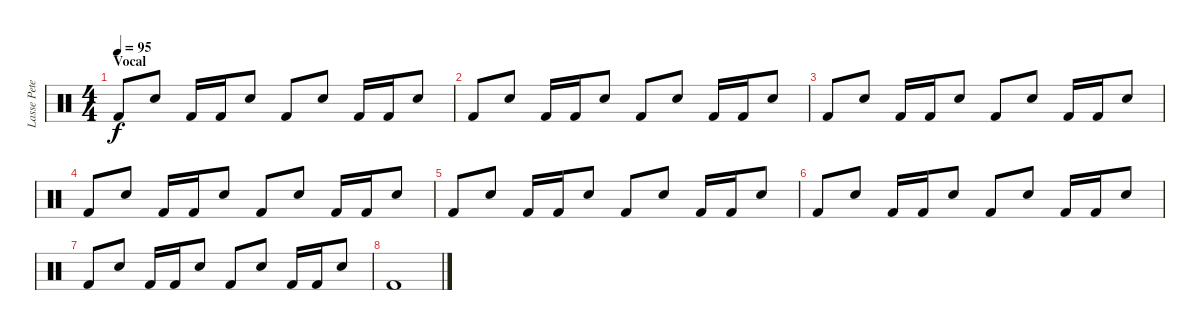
\track ("Lasse Peterson" "Lasse Pete") {instrument percussion}
\staff {score}
\articulation defaults
\ts (4 4)
\section ("" "Vocal")
\tempo 95
\clef neutral
\ks c "Kick (hit) 2".8{dy f} "Electric Snare (hit)".8 "Kick (hit) 2".16 "Kick (hit) 2".16 "Electric Snare (hit)".8 "Kick (hit) 2".8 "Electric Snare (hit)".8 "Kick (hit) 2".16 "Kick (hit) 2".16 "Electric Snare (hit)".8
|
"Kick (hit) 2".8 "Electric Snare (hit)".8 "Kick (hit) 2".16 "Kick (hit) 2".16 "Electric Snare (hit)".8 "Kick (hit) 2".8 "Electric Snare (hit)".8 "Kick (hit) 2".16 "Kick (hit) 2".16 "Electric Snare (hit)".8 |
"Kick (hit) 2".8 "Electric Snare (hit)".8 "Kick (hit) 2".16 "Kick (hit) 2".16 "Electric Snare (hit)".8 "Kick (hit) 2".8 "Electric Snare (hit)".8 "Kick (hit) 2".16 "Kick (hit) 2".16 "Electric Snare (hit)".8 |
"Kick (hit) 2".8 "Electric Snare (hit)".8 "Kick (hit) 2".16 "Kick (hit) 2".16 "Electric Snare (hit)".8 "Kick (hit) 2".8 "Electric Snare (hit)".8 "Kick (hit) 2".16 "Kick (hit) 2".16 "Electric Snare (hit)".8 |
"Kick (hit) 2".8 "Electric Snare (hit)".8 "Kick (hit) 2".16 "Kick (hit) 2".16 "Electric Snare (hit)".8 "Kick (hit) 2".8 "Electric Snare (hit)".8 "Kick (hit) 2".16 "Kick (hit) 2".16 "Electric Snare (hit)".8 |
"Kick (hit) 2".8 "Electric Snare (hit)".8 "Kick (hit) 2".16 "Kick (hit) 2".16 "Electric Snare (hit)".8 "Kick (hit) 2".8 "Electric Snare (hit)".8 "Kick (hit) 2".16 "Kick (hit) 2".16 "Electric Snare (hit)".8 |
"Kick (hit) 2".8 "Electric Snare (hit)".8 "Kick (hit) 2".16 "Kick (hit) 2".16 "Electric Snare (hit)".8 "Kick (hit) 2".8 "Electric Snare (hit)".8 "Kick (hit) 2".16 "Kick (hit) 2".16 "Electric Snare (hit)".8 |
"Kick (hit) 2".1
